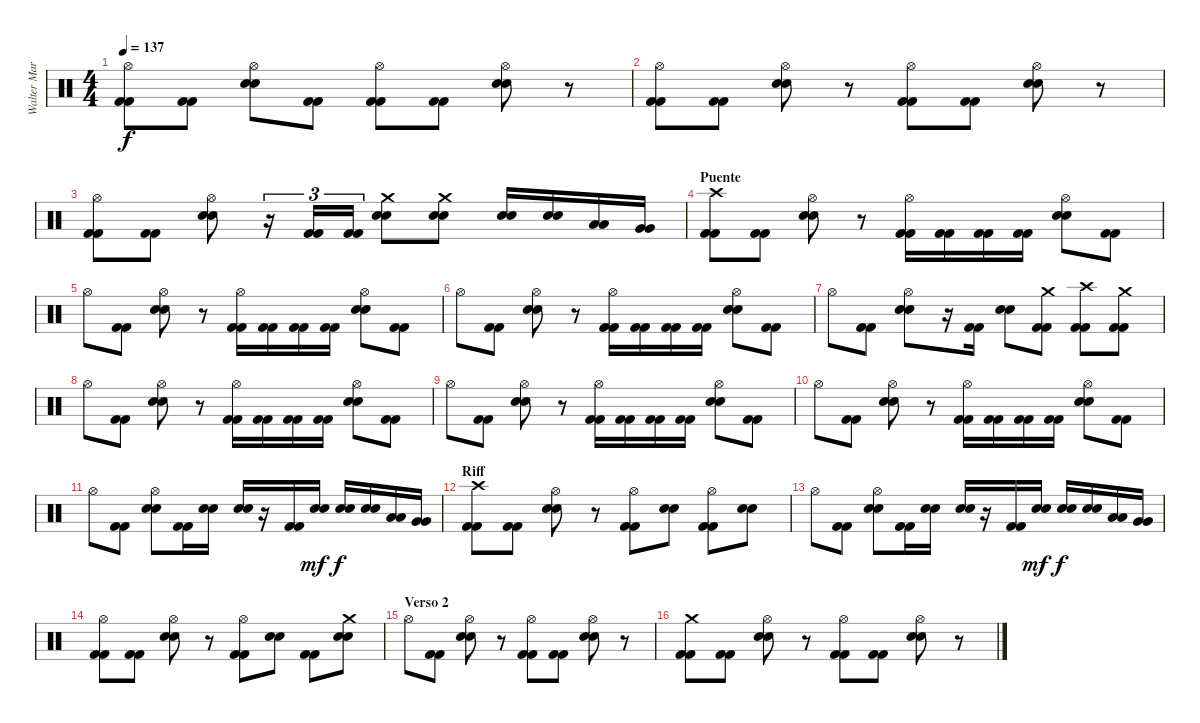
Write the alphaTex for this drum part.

\track ("Walter Martinez (bateria)" "Walter Mar") {instrument percussion}
\staff {score}
\articulation defaults
\ts (4 4)
\tempo 137
\clef neutral
\ks c
("Hi-Hat (open)" "Kick (hit) 2" "Kick (hit) 2").8{dy f} ("Kick (hit) 2" "Kick (hit) 2").8 ("Hi-Hat (open)" "Snare (hit) 2" "Snare (hit) 2").8 ("Kick (hit) 2" "Kick (hit) 2").8 ("Hi-Hat (open)" "Kick (hit) 2" "Kick (hit) 2").8 ("Kick (hit) 2" "Kick (hit) 2").8 ("Hi-Hat (open)" "Snare (hit) 2" "Snare (hit) 2").8 r.8 |
("Hi-Hat (open)" "Kick (hit) 2" "Kick (hit) 2").8 ("Kick (hit) 2" "Kick (hit) 2").8 ("Hi-Hat (open)" "Snare (hit) 2" "Snare (hit) 2").8 r.8 ("Hi-Hat (open)" "Kick (hit) 2" "Kick (hit) 2").8 ("Kick (hit) 2" "Kick (hit) 2").8 ("Hi-Hat (open)" "Snare (hit) 2" "Snare (hit) 2").8 r.8 |
("Hi-Hat (open)" "Kick (hit) 2" "Kick (hit) 2").8 ("Kick (hit) 2" "Kick (hit) 2").8 ("Hi-Hat (open)" "Snare (hit) 2" "Snare (hit) 2").8 r.16{tu (3 2)} ("Kick (hit) 2" "Kick (hit) 2").16{tu (3 2)} ("Kick (hit) 2" "Kick (hit) 2").16{tu (3 2)} ("Crash medium (hit)" "Snare (hit) 2" "Snare (hit) 2").8 ("Crash medium (hit)" "Snare (hit) 2" "Snare (hit) 2").8 ("Snare (hit) 2" "Snare (hit) 2").16 ("Snare (hit) 2" "Snare (hit) 2").16 ("Low Tom (hit)" "Low Tom (hit)").16 ("Very Low Tom (hit)" "Very Low Tom (hit)").16 |
\section ("" "Puente")
("Crash high (hit)" "Kick (hit) 2" "Kick (hit) 2").8 ("Kick (hit) 2" "Kick (hit) 2").8 ("Hi-Hat (open)" "Snare (hit) 2" "Snare (hit) 2").8 r.8 ("Hi-Hat (open)" "Kick (hit) 2" "Kick (hit) 2").16 ("Kick (hit) 2" "Kick (hit) 2").16 ("Kick (hit) 2" "Kick (hit) 2").16 ("Kick (hit) 2" "Kick (hit) 2").16 ("Hi-Hat (open)" "Snare (hit) 2" "Snare (hit) 2").8 ("Kick (hit) 2" "Kick (hit) 2").8 |
"Hi-Hat (open)".8 ("Kick (hit) 2" "Kick (hit) 2").8 ("Hi-Hat (open)" "Snare (hit) 2" "Snare (hit) 2").8 r.8 ("Hi-Hat (open)" "Kick (hit) 2" "Kick (hit) 2").16 ("Kick (hit) 2" "Kick (hit) 2").16 ("Kick (hit) 2" "Kick (hit) 2").16 ("Kick (hit) 2" "Kick (hit) 2").16 ("Hi-Hat (open)" "Snare (hit) 2" "Snare (hit) 2").8 ("Kick (hit) 2" "Kick (hit) 2").8 |
"Hi-Hat (open)".8 ("Kick (hit) 2" "Kick (hit) 2").8 ("Hi-Hat (open)" "Snare (hit) 2" "Snare (hit) 2").8 r.8 ("Hi-Hat (open)" "Kick (hit) 2" "Kick (hit) 2").16 ("Kick (hit) 2" "Kick (hit) 2").16 ("Kick (hit) 2" "Kick (hit) 2").16 ("Kick (hit) 2" "Kick (hit) 2").16 ("Hi-Hat (open)" "Snare (hit) 2" "Snare (hit) 2").8 ("Kick (hit) 2" "Kick (hit) 2").8 |
"Hi-Hat (open)".8 ("Kick (hit) 2" "Kick (hit) 2").8 ("Hi-Hat (open)" "Snare (hit) 2" "Snare (hit) 2").8 r.16 ("Kick (hit) 2" "Kick (hit) 2").16 ("Snare (hit) 2" "Snare (hit) 2").8 ("Crash medium (hit)" "Kick (hit) 2" "Kick (hit) 2").8 ("Crash high (hit)" "Kick (hit) 2" "Kick (hit) 2").8 ("Crash medium (hit)" "Kick (hit) 2" "Kick (hit) 2").8 |
"Hi-Hat (open)".8 ("Kick (hit) 2" "Kick (hit) 2").8 ("Hi-Hat (open)" "Snare (hit) 2" "Snare (hit) 2").8 r.8 ("Hi-Hat (open)" "Kick (hit) 2" "Kick (hit) 2").16 ("Kick (hit) 2" "Kick (hit) 2").16 ("Kick (hit) 2" "Kick (hit) 2").16 ("Kick (hit) 2" "Kick (hit) 2").16 ("Hi-Hat (open)" "Snare (hit) 2" "Snare (hit) 2").8 ("Kick (hit) 2" "Kick (hit) 2").8 |
"Hi-Hat (open)".8 ("Kick (hit) 2" "Kick (hit) 2").8 ("Hi-Hat (open)" "Snare (hit) 2" "Snare (hit) 2").8 r.8 ("Hi-Hat (open)" "Kick (hit) 2" "Kick (hit) 2").16 ("Kick (hit) 2" "Kick (hit) 2").16 ("Kick (hit) 2" "Kick (hit) 2").16 ("Kick (hit) 2" "Kick (hit) 2").16 ("Hi-Hat (open)" "Snare (hit) 2" "Snare (hit) 2").8 ("Kick (hit) 2" "Kick (hit) 2").8 |
"Hi-Hat (open)".8 ("Kick (hit) 2" "Kick (hit) 2").8 ("Hi-Hat (open)" "Snare (hit) 2" "Snare (hit) 2").8 r.8 ("Hi-Hat (open)" "Kick (hit) 2" "Kick (hit) 2").16 ("Kick (hit) 2" "Kick (hit) 2").16 ("Kick (hit) 2" "Kick (hit) 2").16 ("Kick (hit) 2" "Kick (hit) 2").16 ("Hi-Hat (open)" "Snare (hit) 2" "Snare (hit) 2").8 ("Kick (hit) 2" "Kick (hit) 2").8 |
"Hi-Hat (open)".8 ("Kick (hit) 2" "Kick (hit) 2").8 ("Hi-Hat (open)" "Snare (hit) 2" "Snare (hit) 2").8 ("Kick (hit) 2" "Kick (hit) 2").16 ("Snare (hit) 2" "Snare (hit) 2").16 ("Snare (hit) 2" "Snare (hit) 2").16 r.16 ("Kick (hit) 2" "Kick (hit) 2").16 ("Snare (hit) 2" "Snare (hit) 2").16{dy mf} ("Snare (hit) 2" "Snare (hit) 2").16{dy f} ("Snare (hit) 2" "Snare (hit) 2").16 ("Low Tom (hit)" "Low Tom (hit)").16 ("Very Low Tom (hit)" "Very Low Tom (hit)").16 |
\section ("" "Riff")
("Crash high (hit)" "Kick (hit) 2" "Kick (hit) 2").8 ("Kick (hit) 2" "Kick (hit) 2").8 ("Hi-Hat (open)" "Snare (hit) 2" "Snare (hit) 2").8 r.8 ("Hi-Hat (open)" "Kick (hit) 2" "Kick (hit) 2").8 ("Snare (hit) 2" "Snare (hit) 2").8 ("Hi-Hat (open)" "Kick (hit) 2" "Kick (hit) 2").8 ("Snare (hit) 2" "Snare (hit) 2").8 |
"Hi-Hat (open)".8 ("Kick (hit) 2" "Kick (hit) 2").8 ("Hi-Hat (open)" "Snare (hit) 2" "Snare (hit) 2").8 ("Kick (hit) 2" "Kick (hit) 2").16 ("Snare (hit) 2" "Snare (hit) 2").16 ("Snare (hit) 2" "Snare (hit) 2").16 r.16 ("Kick (hit) 2" "Kick (hit) 2").16 ("Snare (hit) 2" "Snare (hit) 2").16{dy mf} ("Snare (hit) 2" "Snare (hit) 2").16{dy f} ("Snare (hit) 2" "Snare (hit) 2").16 ("Low Tom (hit)" "Low Tom (hit)").16 ("Very Low Tom (hit)" "Very Low Tom (hit)").16 |
("Hi-Hat (open)" "Kick (hit) 2" "Kick (hit) 2").8 ("Kick (hit) 2" "Kick (hit) 2").8 ("Hi-Hat (open)" "Snare (hit) 2" "Snare (hit) 2").8 r.8 ("Hi-Hat (open)" "Kick (hit) 2" "Kick (hit) 2").8 ("Snare (hit) 2" "Snare (hit) 2").8 ("Kick (hit) 2" "Kick (hit) 2").8 ("Crash medium (hit)" "Snare (hit) 2" "Snare (hit) 2").8 |
\section ("" "Verso 2")
"Hi-Hat (open)".8 ("Kick (hit) 2" "Kick (hit) 2").8 ("Hi-Hat (open)" "Snare (hit) 2" "Snare (hit) 2").8 r.8 ("Hi-Hat (open)" "Kick (hit) 2" "Kick (hit) 2").8 ("Kick (hit) 2" "Kick (hit) 2").8 ("Hi-Hat (open)" "Snare (hit) 2" "Snare (hit) 2").8 r.8 |
("Crash medium (hit)" "Kick (hit) 2" "Kick (hit) 2").8 ("Kick (hit) 2" "Kick (hit) 2").8 ("Hi-Hat (open)" "Snare (hit) 2" "Snare (hit) 2").8 r.8 ("Hi-Hat (open)" "Kick (hit) 2" "Kick (hit) 2").8 ("Kick (hit) 2" "Kick (hit) 2").8 ("Hi-Hat (open)" "Snare (hit) 2" "Snare (hit) 2").8 r.8
